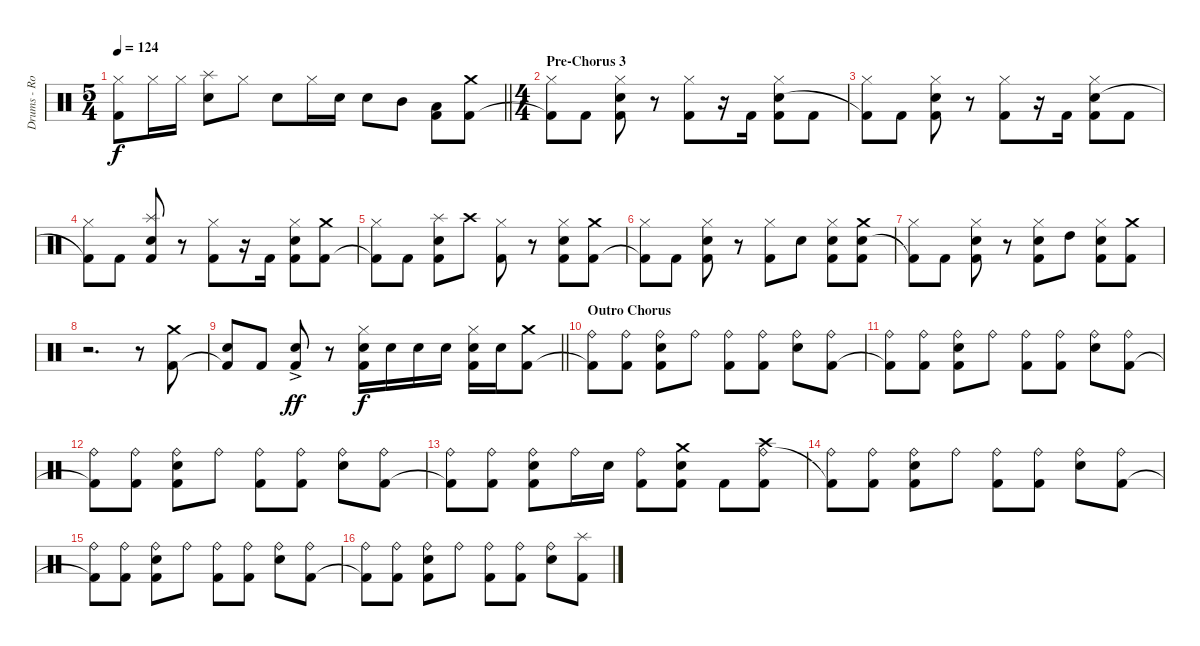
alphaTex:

\track ("Drums - Rockenfield" "Drums - Ro") {instrument percussion}
\staff {score}
\articulation defaults
\ts (5 4)
\tempo 124
\clef neutral
\barLineRight lightlight
\ks c
("Hi-Hat (closed)" "Kick (hit) 2").8{dy f} "Hi-Hat (closed)".16 "Hi-Hat (closed)".16 ("Splash (hit)" "Snare (hit) 2").8 "Hi-Hat (closed)".8 "Snare (hit) 2".8 "Hi-Hat (closed)".16 "Snare (hit) 2".16 "Snare (hit) 2".8 "Mid Tom (hit)".8 ("Low Floor Tom (hit)" "Kick (hit) 2").8 ("Crash medium (hit)" "Kick (hit) 2").8 |
\ts (4 4)
\section ("" "Pre-Chorus 3")
("Hi-Hat (closed)" "Kick (hit) 2"{t}).8 "Kick (hit) 2".8 ("Hi-Hat (closed)" "Snare (hit) 2" "Kick (hit) 2").8 r.8 ("Hi-Hat (closed)" "Kick (hit) 2").8 r.16 "Kick (hit) 2".16 ("Hi-Hat (closed)" "Snare (hit) 2" "Kick (hit) 2").8 "Kick (hit) 2".8 |
("Hi-Hat (closed)" "Kick (hit) 2"{t}).8 "Kick (hit) 2".8 ("Hi-Hat (closed)" "Snare (hit) 2" "Kick (hit) 2").8 r.8 ("Hi-Hat (closed)" "Kick (hit) 2").8 r.16 "Kick (hit) 2".16 ("Hi-Hat (closed)" "Snare (hit) 2" "Kick (hit) 2").8 "Kick (hit) 2".8 |
("Hi-Hat (closed)" "Kick (hit) 2"{t}).8 "Kick (hit) 2".8 ("Splash (hit)" "Snare (hit) 2" "Kick (hit) 2").8 r.8 ("Hi-Hat (closed)" "Kick (hit) 2").8 r.16 "Kick (hit) 2".16 ("Hi-Hat (closed)" "Snare (hit) 2" "Kick (hit) 2").8 ("Crash medium (hit)" "Kick (hit) 2").8 |
("Hi-Hat (closed)" "Kick (hit) 2"{t}).8 "Kick (hit) 2".8 ("Splash (hit)" "Snare (hit) 2" "Kick (hit) 2").8 "Crash high (hit)".8 ("Hi-Hat (closed)" "Kick (hit) 2").8 r.8 ("Hi-Hat (closed)" "Snare (hit) 2" "Kick (hit) 2").8 ("Crash medium (hit)" "Kick (hit) 2").8 |
("Hi-Hat (closed)" "Kick (hit) 2"{t}).8 "Kick (hit) 2".8 ("Hi-Hat (closed)" "Snare (hit) 2" "Kick (hit) 2").8 r.8 ("Hi-Hat (closed)" "Kick (hit) 2").8 "Snare (hit) 2".8 ("Hi-Hat (closed)" "Snare (hit) 2" "Kick (hit) 2").8 ("Crash medium (hit)" "Snare (hit) 2" "Kick (hit) 2").8 |
("Hi-Hat (closed)" "Kick (hit) 2"{t}).8 "Kick (hit) 2".8 ("Hi-Hat (closed)" "Snare (hit) 2" "Kick (hit) 2").8 r.8 ("Hi-Hat (closed)" "Snare (hit) 2" "Kick (hit) 2").8 "High Tom (hit)".8 ("Hi-Hat (closed)" "Snare (hit) 2" "Kick (hit) 2").8 ("Crash medium (hit)" "Kick (hit) 2").8 |
r.2{d} r.8 ("Crash medium (hit)" "Kick (hit) 2").8 |
\barLineRight lightlight
("Snare (hit) 2" "Kick (hit) 2"{t}).8 "Kick (hit) 2".8 ("Snare (hit) 2"{ac} "Kick (hit) 2").8{dy ff} r.8 ("Hi-Hat (closed)" "Snare (hit) 2" "Kick (hit) 2").16{dy f} "Snare (hit) 2".16 "Snare (hit) 2".16 "Snare (hit) 2".16 ("Hi-Hat (closed)" "Snare (hit) 2" "Kick (hit) 2").16 "Snare (hit) 2".16 ("Crash medium (hit)" "Kick (hit) 2").8 |
\section ("" "Outro Chorus")
("Ride (bell)" "Kick (hit) 2"{t}).8 ("Ride (bell)" "Kick (hit) 2").8 ("Ride (bell)" "Snare (hit) 2" "Kick (hit) 2").8 "Ride (bell)".8 ("Ride (bell)" "Kick (hit) 2").8 ("Ride (bell)" "Kick (hit) 2").8 ("Ride (bell)" "Snare (hit) 2").8 ("Ride (bell)" "Kick (hit) 2").8 |
("Ride (bell)" "Kick (hit) 2"{t}).8 ("Ride (bell)" "Kick (hit) 2").8 ("Ride (bell)" "Snare (hit) 2" "Kick (hit) 2").8 "Ride (bell)".8 ("Ride (bell)" "Kick (hit) 2").8 ("Ride (bell)" "Kick (hit) 2").8 ("Ride (bell)" "Snare (hit) 2").8 ("Ride (bell)" "Kick (hit) 2").8 |
("Ride (bell)" "Kick (hit) 2"{t}).8 ("Ride (bell)" "Kick (hit) 2").8 ("Ride (bell)" "Snare (hit) 2" "Kick (hit) 2").8 "Ride (bell)".8 ("Ride (bell)" "Kick (hit) 2").8 ("Ride (bell)" "Kick (hit) 2").8 ("Ride (bell)" "Snare (hit) 2").8 ("Ride (bell)" "Kick (hit) 2").8 |
("Ride (bell)" "Kick (hit) 2"{t}).8 ("Ride (bell)" "Kick (hit) 2").8 ("Ride (bell)" "Snare (hit) 2" "Kick (hit) 2").8 "Ride (bell)".16 "Snare (hit) 2".16 ("Ride (bell)" "Kick (hit) 2").8 ("Crash medium (hit)" "Snare (hit) 2" "Kick (hit) 2").8 "Kick (hit) 2".8 ("Crash high (hit)" "Ride (bell)" "Kick (hit) 2").8 |
("Ride (bell)" "Kick (hit) 2"{t}).8 ("Ride (bell)" "Kick (hit) 2").8 ("Ride (bell)" "Snare (hit) 2" "Kick (hit) 2").8 "Ride (bell)".8 ("Ride (bell)" "Kick (hit) 2").8 ("Ride (bell)" "Kick (hit) 2").8 ("Ride (bell)" "Snare (hit) 2").8 ("Ride (bell)" "Kick (hit) 2").8 |
("Ride (bell)" "Kick (hit) 2"{t}).8 ("Ride (bell)" "Kick (hit) 2").8 ("Ride (bell)" "Snare (hit) 2" "Kick (hit) 2").8 "Ride (bell)".8 ("Ride (bell)" "Kick (hit) 2").8 ("Ride (bell)" "Kick (hit) 2").8 ("Ride (bell)" "Snare (hit) 2").8 ("Ride (bell)" "Kick (hit) 2").8 |
("Ride (bell)" "Kick (hit) 2"{t}).8 ("Ride (bell)" "Kick (hit) 2").8 ("Ride (bell)" "Snare (hit) 2" "Kick (hit) 2").8 "Ride (bell)".8 ("Ride (bell)" "Kick (hit) 2").8 ("Ride (bell)" "Kick (hit) 2").8 ("Ride (bell)" "Snare (hit) 2").8 ("Splash (hit)" "Kick (hit) 2").8
